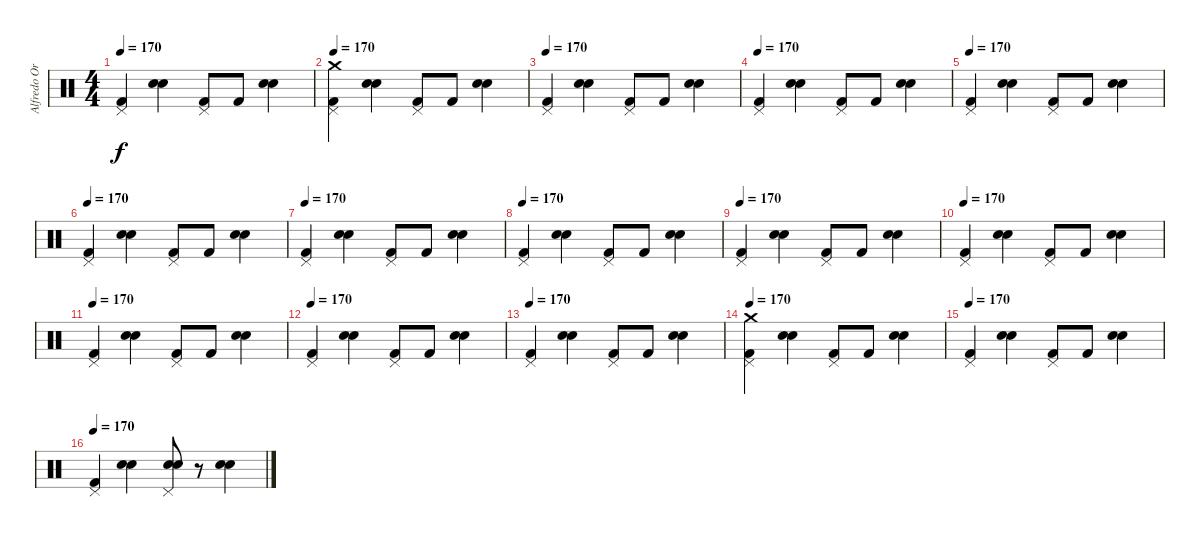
\track ("Alfredo Ortiz (Drums)" "Alfredo Or") {instrument percussion}
\staff {score}
\articulation defaults
\ts (4 4)
\tempo 170
\clef neutral
\ks c
("Kick (hit) 2" "Pedal Hi-Hat (hit)").4{dy f} ("Snare (hit) 2" "Electric Snare (hit)").4 ("Kick (hit) 2" "Pedal Hi-Hat (hit)").8 "Kick (hit) 2".8 ("Snare (hit) 2" "Electric Snare (hit)").4 |
\tempo 170
("Kick (hit) 2" "Pedal Hi-Hat (hit)" "Crash medium (hit)").4 ("Snare (hit) 2" "Electric Snare (hit)").4 ("Kick (hit) 2" "Pedal Hi-Hat (hit)").8 "Kick (hit) 2".8 ("Snare (hit) 2" "Electric Snare (hit)").4 |
\tempo 170
("Kick (hit) 2" "Pedal Hi-Hat (hit)").4 ("Snare (hit) 2" "Electric Snare (hit)").4 ("Kick (hit) 2" "Pedal Hi-Hat (hit)").8 "Kick (hit) 2".8 ("Snare (hit) 2" "Electric Snare (hit)").4 |
\tempo 170
("Kick (hit) 2" "Pedal Hi-Hat (hit)").4 ("Snare (hit) 2" "Electric Snare (hit)").4 ("Kick (hit) 2" "Pedal Hi-Hat (hit)").8 "Kick (hit) 2".8 ("Snare (hit) 2" "Electric Snare (hit)").4 |
\tempo 170
("Kick (hit) 2" "Pedal Hi-Hat (hit)").4 ("Snare (hit) 2" "Electric Snare (hit)").4 ("Kick (hit) 2" "Pedal Hi-Hat (hit)").8 "Kick (hit) 2".8 ("Snare (hit) 2" "Electric Snare (hit)").4 |
\tempo 170
("Kick (hit) 2" "Pedal Hi-Hat (hit)").4 ("Snare (hit) 2" "Electric Snare (hit)").4 ("Kick (hit) 2" "Pedal Hi-Hat (hit)").8 "Kick (hit) 2".8 ("Snare (hit) 2" "Electric Snare (hit)").4 |
\tempo 170
("Kick (hit) 2" "Pedal Hi-Hat (hit)").4 ("Snare (hit) 2" "Electric Snare (hit)").4 ("Kick (hit) 2" "Pedal Hi-Hat (hit)").8 "Kick (hit) 2".8 ("Snare (hit) 2" "Electric Snare (hit)").4 |
\tempo 170
("Kick (hit) 2" "Pedal Hi-Hat (hit)").4 ("Snare (hit) 2" "Electric Snare (hit)").4 ("Kick (hit) 2" "Pedal Hi-Hat (hit)").8 "Kick (hit) 2".8 ("Snare (hit) 2" "Electric Snare (hit)").4 |
\tempo 170
("Kick (hit) 2" "Pedal Hi-Hat (hit)").4 ("Snare (hit) 2" "Electric Snare (hit)").4 ("Kick (hit) 2" "Pedal Hi-Hat (hit)").8 "Kick (hit) 2".8 ("Snare (hit) 2" "Electric Snare (hit)").4 |
\tempo 170
("Kick (hit) 2" "Pedal Hi-Hat (hit)").4 ("Snare (hit) 2" "Electric Snare (hit)").4 ("Kick (hit) 2" "Pedal Hi-Hat (hit)").8 "Kick (hit) 2".8 ("Snare (hit) 2" "Electric Snare (hit)").4 |
\tempo 170
("Kick (hit) 2" "Pedal Hi-Hat (hit)").4 ("Snare (hit) 2" "Electric Snare (hit)").4 ("Kick (hit) 2" "Pedal Hi-Hat (hit)").8 "Kick (hit) 2".8 ("Snare (hit) 2" "Electric Snare (hit)").4 |
\tempo 170
("Kick (hit) 2" "Pedal Hi-Hat (hit)").4 ("Snare (hit) 2" "Electric Snare (hit)").4 ("Kick (hit) 2" "Pedal Hi-Hat (hit)").8 "Kick (hit) 2".8 ("Snare (hit) 2" "Electric Snare (hit)").4 |
\tempo 170
("Kick (hit) 2" "Pedal Hi-Hat (hit)").4 ("Snare (hit) 2" "Electric Snare (hit)").4 ("Kick (hit) 2" "Pedal Hi-Hat (hit)").8 "Kick (hit) 2".8 ("Snare (hit) 2" "Electric Snare (hit)").4 |
\tempo 170
("Kick (hit) 2" "Pedal Hi-Hat (hit)" "Crash medium (hit)").4 ("Snare (hit) 2" "Electric Snare (hit)").4 ("Kick (hit) 2" "Pedal Hi-Hat (hit)").8 "Kick (hit) 2".8 ("Snare (hit) 2" "Electric Snare (hit)").4 |
\tempo 170
("Kick (hit) 2" "Pedal Hi-Hat (hit)").4 ("Snare (hit) 2" "Electric Snare (hit)").4 ("Kick (hit) 2" "Pedal Hi-Hat (hit)").8 "Kick (hit) 2".8 ("Snare (hit) 2" "Electric Snare (hit)").4 |
\tempo 170
("Kick (hit) 2" "Pedal Hi-Hat (hit)").4 ("Snare (hit) 2" "Electric Snare (hit)").4 ("Snare (hit) 2" "Electric Snare (hit)" "Pedal Hi-Hat (hit)").8 r.8 ("Snare (hit) 2" "Electric Snare (hit)").4
